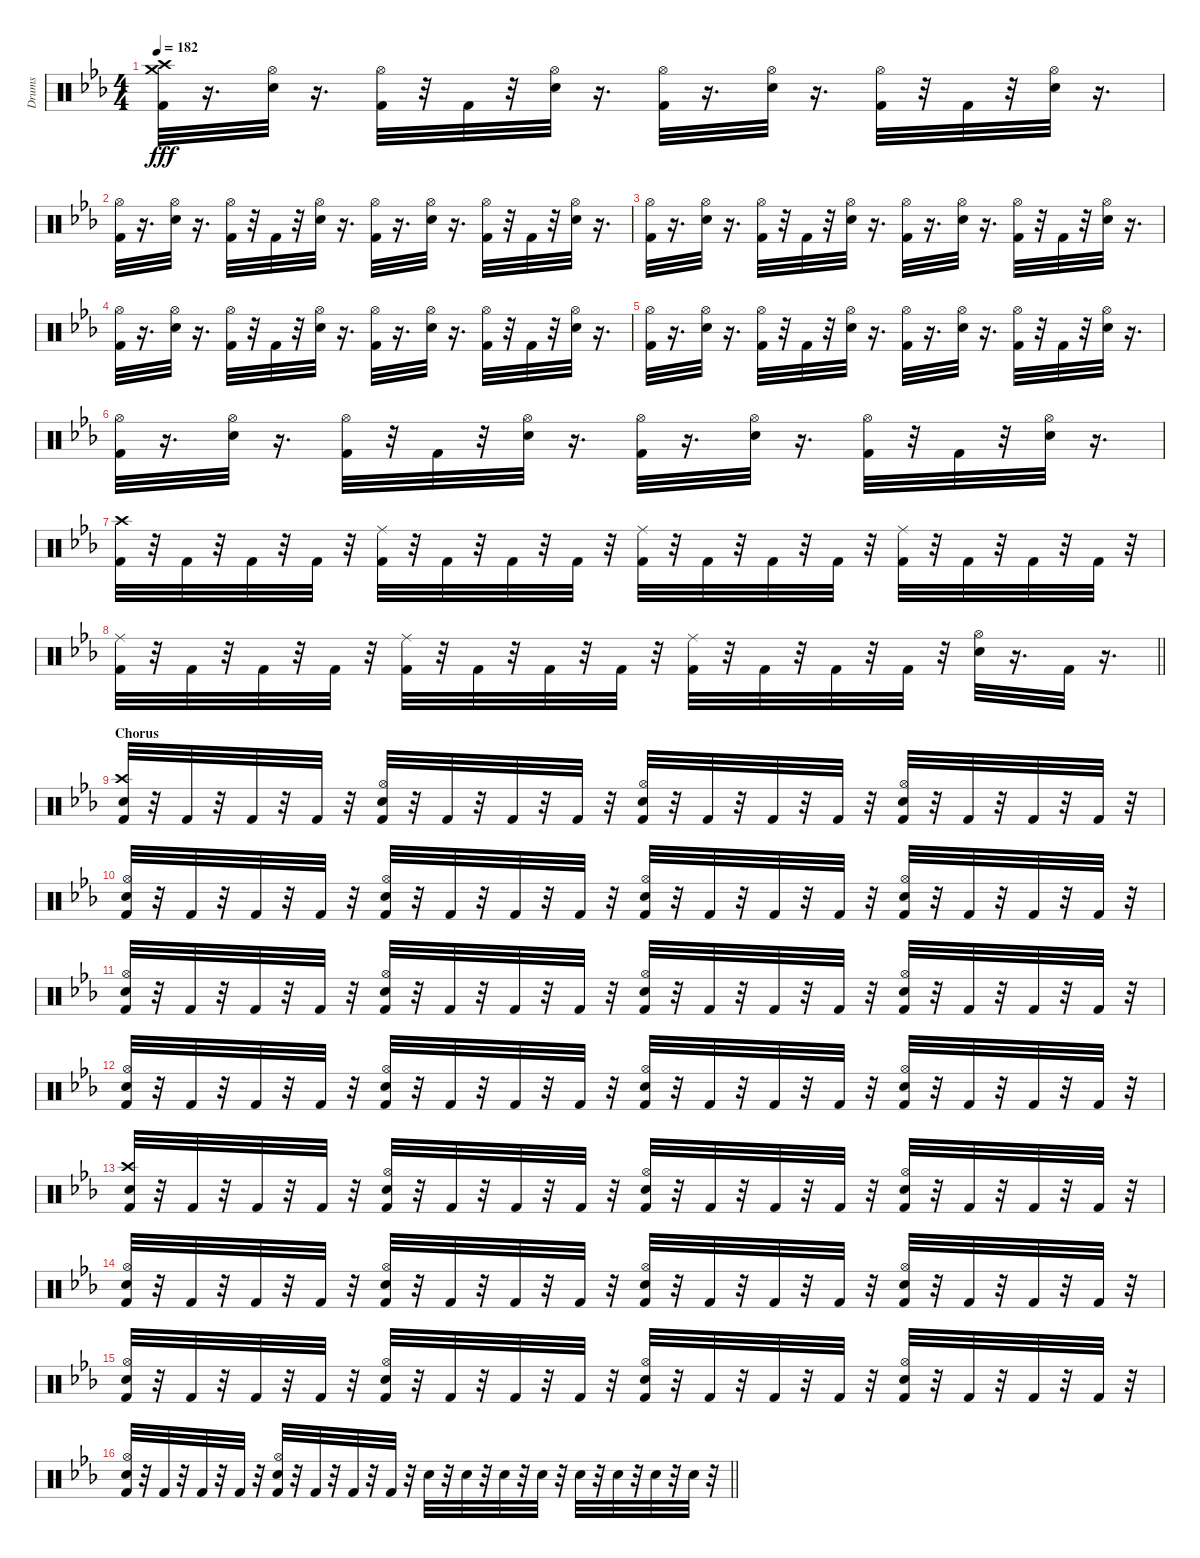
\track ("Drums" "Drums") {instrument percussion}
\staff {score}
\articulation defaults
\ts (4 4)
\tempo 182
\clef neutral
\ks cminor
("Kick (hit) 2" "Crash medium (hit)" "Crash high (hit)").32{dy fff} r.16{d} ("Hi-Hat (open)" "Snare (hit) 2").32 r.16{d} ("Hi-Hat (open)" "Kick (hit) 2").32 r.32 "Kick (hit) 2".32 r.32 ("Hi-Hat (open)" "Snare (hit) 2").32 r.16{d} ("Hi-Hat (open)" "Kick (hit) 2").32 r.16{d} ("Hi-Hat (open)" "Snare (hit) 2").32 r.16{d} ("Hi-Hat (open)" "Kick (hit) 2").32 r.32 "Kick (hit) 2".32 r.32 ("Hi-Hat (open)" "Snare (hit) 2").32 r.16{d} |
("Hi-Hat (open)" "Kick (hit) 2").32 r.16{d} ("Hi-Hat (open)" "Snare (hit) 2").32 r.16{d} ("Hi-Hat (open)" "Kick (hit) 2").32 r.32 "Kick (hit) 2".32 r.32 ("Hi-Hat (open)" "Snare (hit) 2").32 r.16{d} ("Hi-Hat (open)" "Kick (hit) 2").32 r.16{d} ("Hi-Hat (open)" "Snare (hit) 2").32 r.16{d} ("Hi-Hat (open)" "Kick (hit) 2").32 r.32 "Kick (hit) 2".32 r.32 ("Hi-Hat (open)" "Snare (hit) 2").32 r.16{d} |
("Hi-Hat (open)" "Kick (hit) 2").32 r.16{d} ("Hi-Hat (open)" "Snare (hit) 2").32 r.16{d} ("Hi-Hat (open)" "Kick (hit) 2").32 r.32 "Kick (hit) 2".32 r.32 ("Hi-Hat (open)" "Snare (hit) 2").32 r.16{d} ("Hi-Hat (open)" "Kick (hit) 2").32 r.16{d} ("Hi-Hat (open)" "Snare (hit) 2").32 r.16{d} ("Hi-Hat (open)" "Kick (hit) 2").32 r.32 "Kick (hit) 2".32 r.32 ("Hi-Hat (open)" "Snare (hit) 2").32 r.16{d} |
("Hi-Hat (open)" "Kick (hit) 2").32 r.16{d} ("Hi-Hat (open)" "Snare (hit) 2").32 r.16{d} ("Hi-Hat (open)" "Kick (hit) 2").32 r.32 "Kick (hit) 2".32 r.32 ("Hi-Hat (open)" "Snare (hit) 2").32 r.16{d} ("Hi-Hat (open)" "Kick (hit) 2").32 r.16{d} ("Hi-Hat (open)" "Snare (hit) 2").32 r.16{d} ("Hi-Hat (open)" "Kick (hit) 2").32 r.32 "Kick (hit) 2".32 r.32 ("Hi-Hat (open)" "Snare (hit) 2").32 r.16{d} |
("Hi-Hat (open)" "Kick (hit) 2").32 r.16{d} ("Hi-Hat (open)" "Snare (hit) 2").32 r.16{d} ("Hi-Hat (open)" "Kick (hit) 2").32 r.32 "Kick (hit) 2".32 r.32 ("Hi-Hat (open)" "Snare (hit) 2").32 r.16{d} ("Hi-Hat (open)" "Kick (hit) 2").32 r.16{d} ("Hi-Hat (open)" "Snare (hit) 2").32 r.16{d} ("Hi-Hat (open)" "Kick (hit) 2").32 r.32 "Kick (hit) 2".32 r.32 ("Hi-Hat (open)" "Snare (hit) 2").32 r.16{d} |
("Hi-Hat (open)" "Kick (hit) 2").32 r.16{d} ("Hi-Hat (open)" "Snare (hit) 2").32 r.16{d} ("Hi-Hat (open)" "Kick (hit) 2").32 r.32 "Kick (hit) 2".32 r.32 ("Hi-Hat (open)" "Snare (hit) 2").32 r.16{d} ("Hi-Hat (open)" "Kick (hit) 2").32 r.16{d} ("Hi-Hat (open)" "Snare (hit) 2").32 r.16{d} ("Hi-Hat (open)" "Kick (hit) 2").32 r.32 "Kick (hit) 2".32 r.32 ("Hi-Hat (open)" "Snare (hit) 2").32 r.16{d} |
("Crash high (hit)" "Kick (hit) 2").32 r.32 "Kick (hit) 2".32 r.32 "Kick (hit) 2".32 r.32 "Kick (hit) 2".32 r.32 ("Ride (middle)" "Kick (hit) 2").32 r.32 "Kick (hit) 2".32 r.32 "Kick (hit) 2".32 r.32 "Kick (hit) 2".32 r.32 ("Ride (middle)" "Kick (hit) 2").32 r.32 "Kick (hit) 2".32 r.32 "Kick (hit) 2".32 r.32 "Kick (hit) 2".32 r.32 ("Ride (middle)" "Kick (hit) 2").32 r.32 "Kick (hit) 2".32 r.32 "Kick (hit) 2".32 r.32 "Kick (hit) 2".32 r.32 |
\barLineRight lightlight
("Ride (middle)" "Kick (hit) 2").32 r.32 "Kick (hit) 2".32 r.32 "Kick (hit) 2".32 r.32 "Kick (hit) 2".32 r.32 ("Ride (middle)" "Kick (hit) 2").32 r.32 "Kick (hit) 2".32 r.32 "Kick (hit) 2".32 r.32 "Kick (hit) 2".32 r.32 ("Ride (middle)" "Kick (hit) 2").32 r.32 "Kick (hit) 2".32 r.32 "Kick (hit) 2".32 r.32 "Kick (hit) 2".32 r.32 ("Hi-Hat (open)" "Snare (hit) 2").32 r.16{d} "Kick (hit) 2".32 r.16{d} |
\section ("" "Chorus")
("Crash high (hit)" "Snare (hit) 2" "Kick (hit) 2").32 r.32 "Kick (hit) 2".32 r.32 "Kick (hit) 2".32 r.32 "Kick (hit) 2".32 r.32 ("Hi-Hat (open)" "Snare (hit) 2" "Kick (hit) 2").32 r.32 "Kick (hit) 2".32 r.32 "Kick (hit) 2".32 r.32 "Kick (hit) 2".32 r.32 ("Hi-Hat (open)" "Snare (hit) 2" "Kick (hit) 2").32 r.32 "Kick (hit) 2".32 r.32 "Kick (hit) 2".32 r.32 "Kick (hit) 2".32 r.32 ("Hi-Hat (open)" "Snare (hit) 2" "Kick (hit) 2").32 r.32 "Kick (hit) 2".32 r.32 "Kick (hit) 2".32 r.32 "Kick (hit) 2".32 r.32 |
("Hi-Hat (open)" "Snare (hit) 2" "Kick (hit) 2").32 r.32 "Kick (hit) 2".32 r.32 "Kick (hit) 2".32 r.32 "Kick (hit) 2".32 r.32 ("Hi-Hat (open)" "Snare (hit) 2" "Kick (hit) 2").32 r.32 "Kick (hit) 2".32 r.32 "Kick (hit) 2".32 r.32 "Kick (hit) 2".32 r.32 ("Hi-Hat (open)" "Snare (hit) 2" "Kick (hit) 2").32 r.32 "Kick (hit) 2".32 r.32 "Kick (hit) 2".32 r.32 "Kick (hit) 2".32 r.32 ("Hi-Hat (open)" "Snare (hit) 2" "Kick (hit) 2").32 r.32 "Kick (hit) 2".32 r.32 "Kick (hit) 2".32 r.32 "Kick (hit) 2".32 r.32 |
("Hi-Hat (open)" "Snare (hit) 2" "Kick (hit) 2").32 r.32 "Kick (hit) 2".32 r.32 "Kick (hit) 2".32 r.32 "Kick (hit) 2".32 r.32 ("Hi-Hat (open)" "Snare (hit) 2" "Kick (hit) 2").32 r.32 "Kick (hit) 2".32 r.32 "Kick (hit) 2".32 r.32 "Kick (hit) 2".32 r.32 ("Hi-Hat (open)" "Snare (hit) 2" "Kick (hit) 2").32 r.32 "Kick (hit) 2".32 r.32 "Kick (hit) 2".32 r.32 "Kick (hit) 2".32 r.32 ("Hi-Hat (open)" "Snare (hit) 2" "Kick (hit) 2").32 r.32 "Kick (hit) 2".32 r.32 "Kick (hit) 2".32 r.32 "Kick (hit) 2".32 r.32 |
("Hi-Hat (open)" "Snare (hit) 2" "Kick (hit) 2").32 r.32 "Kick (hit) 2".32 r.32 "Kick (hit) 2".32 r.32 "Kick (hit) 2".32 r.32 ("Hi-Hat (open)" "Snare (hit) 2" "Kick (hit) 2").32 r.32 "Kick (hit) 2".32 r.32 "Kick (hit) 2".32 r.32 "Kick (hit) 2".32 r.32 ("Hi-Hat (open)" "Snare (hit) 2" "Kick (hit) 2").32 r.32 "Kick (hit) 2".32 r.32 "Kick (hit) 2".32 r.32 "Kick (hit) 2".32 r.32 ("Hi-Hat (open)" "Snare (hit) 2" "Kick (hit) 2").32 r.32 "Kick (hit) 2".32 r.32 "Kick (hit) 2".32 r.32 "Kick (hit) 2".32 r.32 |
("Crash high (hit)" "Snare (hit) 2" "Kick (hit) 2").32 r.32 "Kick (hit) 2".32 r.32 "Kick (hit) 2".32 r.32 "Kick (hit) 2".32 r.32 ("Hi-Hat (open)" "Snare (hit) 2" "Kick (hit) 2").32 r.32 "Kick (hit) 2".32 r.32 "Kick (hit) 2".32 r.32 "Kick (hit) 2".32 r.32 ("Hi-Hat (open)" "Snare (hit) 2" "Kick (hit) 2").32 r.32 "Kick (hit) 2".32 r.32 "Kick (hit) 2".32 r.32 "Kick (hit) 2".32 r.32 ("Hi-Hat (open)" "Snare (hit) 2" "Kick (hit) 2").32 r.32 "Kick (hit) 2".32 r.32 "Kick (hit) 2".32 r.32 "Kick (hit) 2".32 r.32 |
("Hi-Hat (open)" "Snare (hit) 2" "Kick (hit) 2").32 r.32 "Kick (hit) 2".32 r.32 "Kick (hit) 2".32 r.32 "Kick (hit) 2".32 r.32 ("Hi-Hat (open)" "Snare (hit) 2" "Kick (hit) 2").32 r.32 "Kick (hit) 2".32 r.32 "Kick (hit) 2".32 r.32 "Kick (hit) 2".32 r.32 ("Hi-Hat (open)" "Snare (hit) 2" "Kick (hit) 2").32 r.32 "Kick (hit) 2".32 r.32 "Kick (hit) 2".32 r.32 "Kick (hit) 2".32 r.32 ("Hi-Hat (open)" "Snare (hit) 2" "Kick (hit) 2").32 r.32 "Kick (hit) 2".32 r.32 "Kick (hit) 2".32 r.32 "Kick (hit) 2".32 r.32 |
("Hi-Hat (open)" "Snare (hit) 2" "Kick (hit) 2").32 r.32 "Kick (hit) 2".32 r.32 "Kick (hit) 2".32 r.32 "Kick (hit) 2".32 r.32 ("Hi-Hat (open)" "Snare (hit) 2" "Kick (hit) 2").32 r.32 "Kick (hit) 2".32 r.32 "Kick (hit) 2".32 r.32 "Kick (hit) 2".32 r.32 ("Hi-Hat (open)" "Snare (hit) 2" "Kick (hit) 2").32 r.32 "Kick (hit) 2".32 r.32 "Kick (hit) 2".32 r.32 "Kick (hit) 2".32 r.32 ("Hi-Hat (open)" "Snare (hit) 2" "Kick (hit) 2").32 r.32 "Kick (hit) 2".32 r.32 "Kick (hit) 2".32 r.32 "Kick (hit) 2".32 r.32 |
\barLineRight lightlight
("Hi-Hat (open)" "Snare (hit) 2" "Kick (hit) 2").32 r.32 "Kick (hit) 2".32 r.32 "Kick (hit) 2".32 r.32 "Kick (hit) 2".32 r.32 ("Hi-Hat (open)" "Snare (hit) 2" "Kick (hit) 2").32 r.32 "Kick (hit) 2".32 r.32 "Kick (hit) 2".32 r.32 "Kick (hit) 2".32 r.32 "Snare (hit) 2".32 r.32 "Snare (hit) 2".32 r.32 "Snare (hit) 2".32 r.32 "Snare (hit) 2".32 r.32 "Snare (hit) 2".32 r.32 "Snare (hit) 2".32 r.32 "Snare (hit) 2".32 r.32 "Snare (hit) 2".32 r.32
